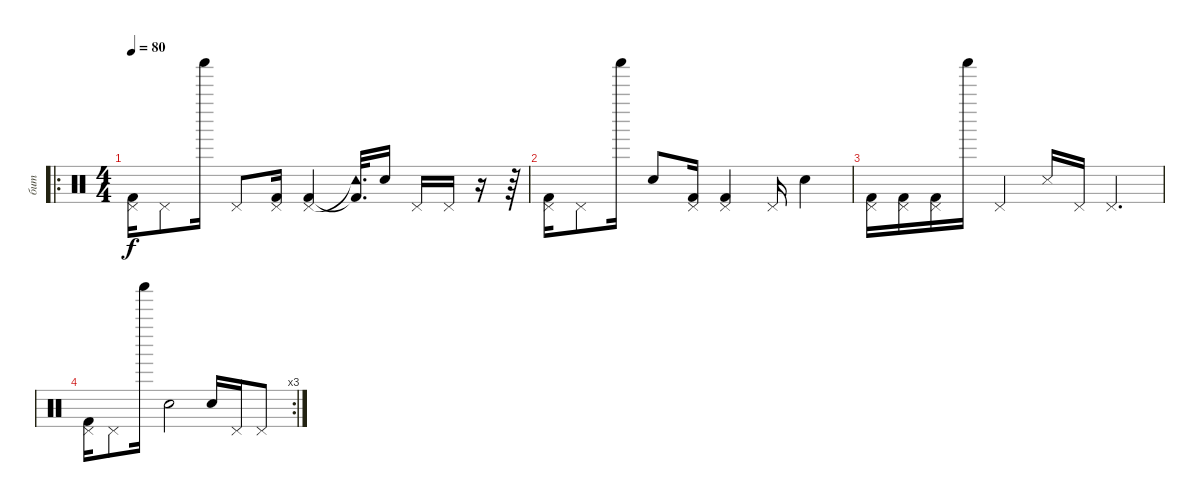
\track ("бит" "бит") {instrument percussion}
\staff {score}
\articulation defaults
\ro
\ts (4 4)
\tempo 80
\clef neutral
\ks c
("Pedal Hi-Hat (hit)" "Kick (hit) 2").16{dy f} "Pedal Hi-Hat (hit)".8 "Shaker (hit)".16 "Pedal Hi-Hat (hit)".8 ("Pedal Hi-Hat (hit)" "Kick (hit) 2").16 ("Pedal Hi-Hat (hit)" "Kick (hit) 2").4 ("Tambourine (hit)"{t} "Kick (hit) 2"{t}).32{d} "Hand Clap (hit)".16 "Pedal Hi-Hat (hit)".16 "Pedal Hi-Hat (hit)".16 r.16 r.64 |
("Pedal Hi-Hat (hit)" "Kick (hit) 2").16 "Pedal Hi-Hat (hit)".8 "Shaker (hit)".16 "Hand Clap (hit)".8 ("Pedal Hi-Hat (hit)" "Kick (hit) 2").16 ("Pedal Hi-Hat (hit)" "Kick (hit) 2").4 "Pedal Hi-Hat (hit)".16 "Hand Clap (hit)".4 |
("Pedal Hi-Hat (hit)" "Kick (hit) 2").16 ("Pedal Hi-Hat (hit)" "Kick (hit) 2").16 ("Pedal Hi-Hat (hit)" "Kick (hit) 2").16 "Shaker (hit)".16 "Pedal Hi-Hat (hit)".4 "Snare (side stick) 3".16 "Pedal Hi-Hat (hit)".16 "Pedal Hi-Hat (hit)".4{d} |
\rc 3
("Pedal Hi-Hat (hit)" "Kick (hit) 2").16 "Pedal Hi-Hat (hit)".8 "Shaker (hit)".16 "Hand Clap (hit)".2 "Hand Clap (hit)".16 "Pedal Hi-Hat (hit)".16 "Pedal Hi-Hat (hit)".8
